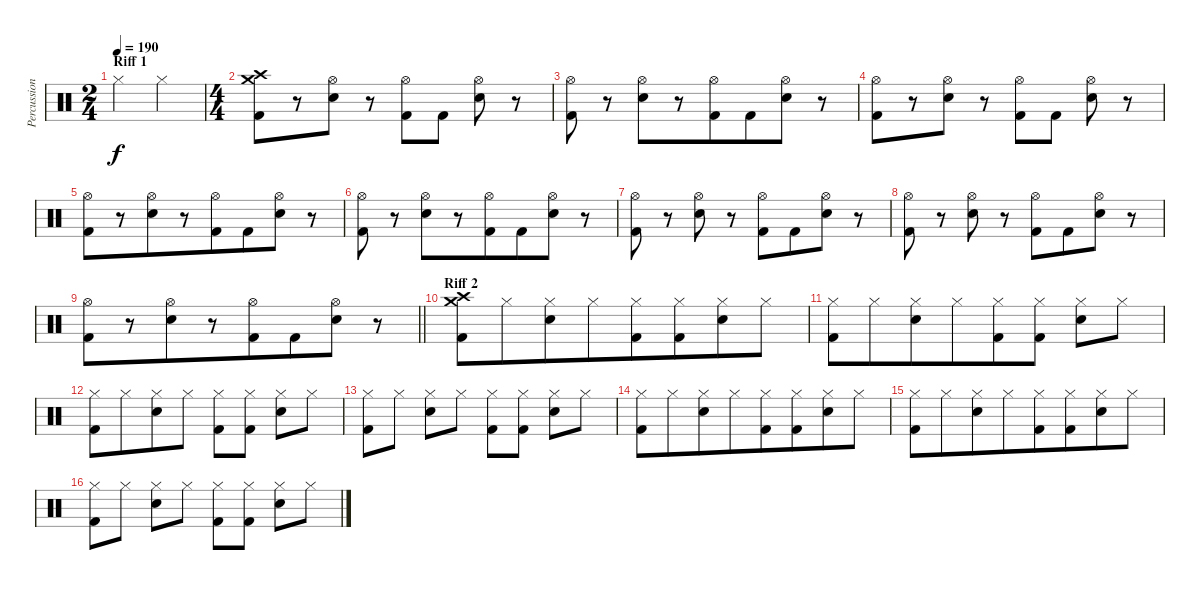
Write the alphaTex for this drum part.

\track ("Percussion" "Percussion") {instrument percussion}
\staff {score}
\articulation defaults
\ts (2 4)
\section ("" "Riff 1")
\tempo 190
\clef neutral
\ks c "Hi-Hat (closed)".4{dy f beam merge} "Hi-Hat (closed)".4
|
\ts (4 4)
("Crash medium (hit)" "Crash high (hit)" "Kick (hit) 2").8{beam merge} r.8{beam merge} ("Hi-Hat (open)" "Electric Snare (hit)").8 r.8{beam merge} ("Hi-Hat (open)" "Kick (hit) 2").8{beam merge} "Kick (hit) 2".8 ("Hi-Hat (open)" "Electric Snare (hit)").8 r.8 |
("Hi-Hat (open)" "Kick (hit) 2").8 r.8{beam merge} ("Hi-Hat (open)" "Electric Snare (hit)").8{beam merge} r.8{beam merge} ("Hi-Hat (open)" "Kick (hit) 2").8{beam merge} "Kick (hit) 2".8{beam merge} ("Hi-Hat (open)" "Electric Snare (hit)").8 r.8 |
("Hi-Hat (open)" "Kick (hit) 2").8{beam merge} r.8{beam merge} ("Hi-Hat (open)" "Electric Snare (hit)").8 r.8{beam merge} ("Hi-Hat (open)" "Kick (hit) 2").8{beam merge} "Kick (hit) 2".8 ("Hi-Hat (open)" "Electric Snare (hit)").8{beam merge} r.8 |
("Hi-Hat (open)" "Kick (hit) 2").8{beam merge} r.8{beam merge} ("Hi-Hat (open)" "Electric Snare (hit)").8{beam merge} r.8 ("Hi-Hat (open)" "Kick (hit) 2").8{beam merge} "Kick (hit) 2".8{beam merge} ("Hi-Hat (open)" "Electric Snare (hit)").8{beam merge} r.8 |
("Hi-Hat (open)" "Kick (hit) 2").8 r.8{beam merge} ("Hi-Hat (open)" "Electric Snare (hit)").8{beam merge} r.8{beam merge} ("Hi-Hat (open)" "Kick (hit) 2").8{beam merge} "Kick (hit) 2".8{beam merge} ("Hi-Hat (open)" "Electric Snare (hit)").8{beam merge} r.8 |
("Hi-Hat (open)" "Kick (hit) 2").8 r.8{beam merge} ("Hi-Hat (open)" "Electric Snare (hit)").8 r.8{beam merge} ("Hi-Hat (open)" "Kick (hit) 2").8{beam merge} "Kick (hit) 2".8{beam merge} ("Hi-Hat (open)" "Electric Snare (hit)").8{beam merge} r.8 |
("Hi-Hat (open)" "Kick (hit) 2").8 r.8 ("Hi-Hat (open)" "Electric Snare (hit)").8 r.8 ("Hi-Hat (open)" "Kick (hit) 2").8 "Kick (hit) 2".8{beam merge} ("Hi-Hat (open)" "Electric Snare (hit)").8 r.8 |
\barLineRight lightlight
("Hi-Hat (open)" "Kick (hit) 2").8{beam merge} r.8 ("Hi-Hat (open)" "Electric Snare (hit)").8{beam merge} r.8{beam merge} ("Hi-Hat (open)" "Kick (hit) 2").8{beam merge} "Kick (hit) 2".8{beam merge} ("Hi-Hat (open)" "Electric Snare (hit)").8 r.8 |
\section ("" "Riff 2")
("Crash medium (hit)" "Crash high (hit)" "Kick (hit) 2").8{beam merge} "Hi-Hat (closed)".8{beam merge} ("Hi-Hat (closed)" "Electric Snare (hit)").8{beam merge} "Hi-Hat (closed)".8{beam merge} ("Hi-Hat (closed)" "Kick (hit) 2").8{beam merge} ("Hi-Hat (closed)" "Kick (hit) 2").8{beam merge} ("Hi-Hat (closed)" "Electric Snare (hit)").8{beam merge} "Hi-Hat (closed)".8 |
("Hi-Hat (closed)" "Kick (hit) 2").8{beam merge} "Hi-Hat (closed)".8{beam merge} ("Hi-Hat (closed)" "Electric Snare (hit)").8 "Hi-Hat (closed)".8{beam merge} ("Hi-Hat (closed)" "Kick (hit) 2").8{beam merge} ("Hi-Hat (closed)" "Kick (hit) 2").8 ("Hi-Hat (closed)" "Electric Snare (hit)").8{beam merge} "Hi-Hat (closed)".8 |
("Hi-Hat (closed)" "Kick (hit) 2").8{beam merge} "Hi-Hat (closed)".8{beam merge} ("Hi-Hat (closed)" "Electric Snare (hit)").8 "Hi-Hat (closed)".8 ("Hi-Hat (closed)" "Kick (hit) 2").8 ("Hi-Hat (closed)" "Kick (hit) 2").8 ("Hi-Hat (closed)" "Electric Snare (hit)").8{beam merge} "Hi-Hat (closed)".8 |
("Hi-Hat (closed)" "Kick (hit) 2").8{beam merge} "Hi-Hat (closed)".8 ("Hi-Hat (closed)" "Electric Snare (hit)").8{beam merge} "Hi-Hat (closed)".8 ("Hi-Hat (closed)" "Kick (hit) 2").8{beam merge} ("Hi-Hat (closed)" "Kick (hit) 2").8 ("Hi-Hat (closed)" "Electric Snare (hit)").8 "Hi-Hat (closed)".8 |
("Hi-Hat (closed)" "Kick (hit) 2").8{beam merge} "Hi-Hat (closed)".8{beam merge} ("Hi-Hat (closed)" "Electric Snare (hit)").8{beam merge} "Hi-Hat (closed)".8{beam merge} ("Hi-Hat (closed)" "Kick (hit) 2").8{beam merge} ("Hi-Hat (closed)" "Kick (hit) 2").8{beam merge} ("Hi-Hat (closed)" "Electric Snare (hit)").8{beam merge} "Hi-Hat (closed)".8 |
("Hi-Hat (closed)" "Kick (hit) 2").8{beam merge} "Hi-Hat (closed)".8{beam merge} ("Hi-Hat (closed)" "Electric Snare (hit)").8{beam merge} "Hi-Hat (closed)".8{beam merge} ("Hi-Hat (closed)" "Kick (hit) 2").8 ("Hi-Hat (closed)" "Kick (hit) 2").8{beam merge} ("Hi-Hat (closed)" "Electric Snare (hit)").8{beam merge} "Hi-Hat (closed)".8 |
("Hi-Hat (closed)" "Kick (hit) 2").8 "Hi-Hat (closed)".8 ("Hi-Hat (closed)" "Electric Snare (hit)").8 "Hi-Hat (closed)".8 ("Hi-Hat (closed)" "Kick (hit) 2").8 ("Hi-Hat (closed)" "Kick (hit) 2").8 ("Hi-Hat (closed)" "Electric Snare (hit)").8 "Hi-Hat (closed)".8
